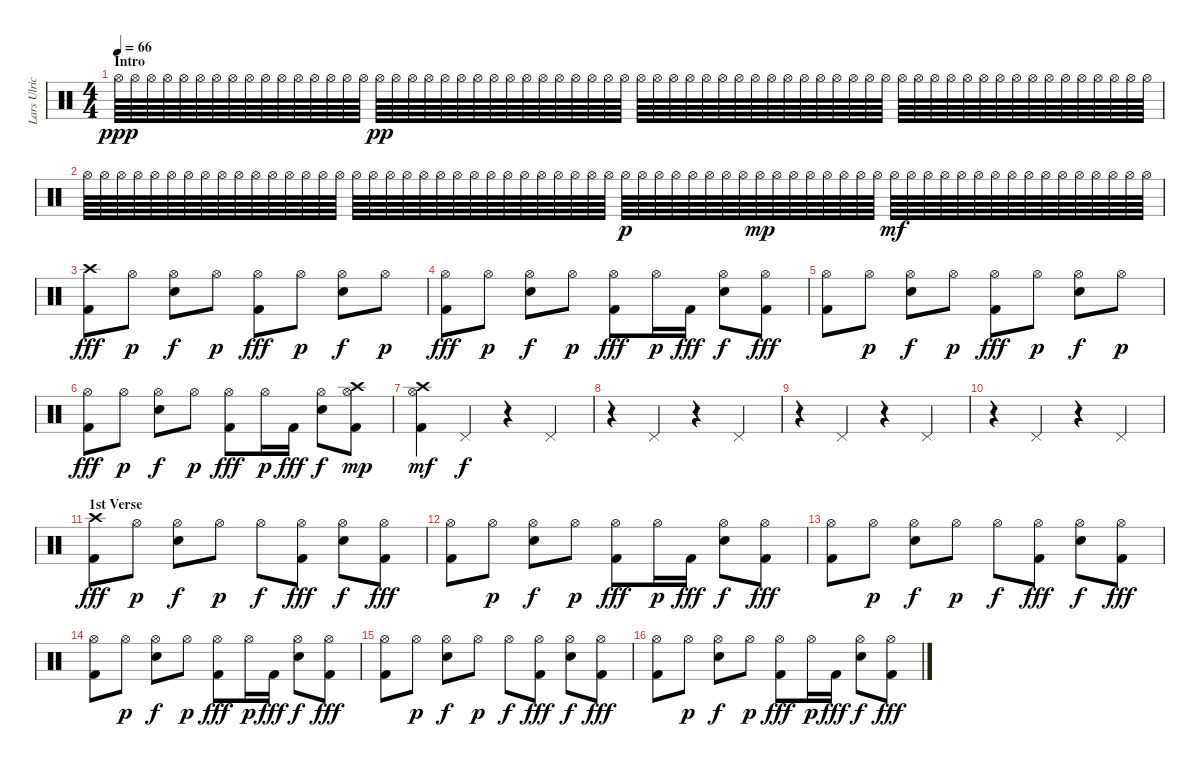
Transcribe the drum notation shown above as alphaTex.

\track ("Lars Ulrich (Drums)" "Lars Ulric") {instrument percussion}
\staff {score}
\articulation defaults
\ts (4 4)
\section ("" "Intro")
\tempo 66
\clef neutral
\ks c "Hi-Hat (open)".64{dy ppp} "Hi-Hat (open)".64 "Hi-Hat (open)".64 "Hi-Hat (open)".64 "Hi-Hat (open)".64 "Hi-Hat (open)".64 "Hi-Hat (open)".64 "Hi-Hat (open)".64 "Hi-Hat (open)".64 "Hi-Hat (open)".64 "Hi-Hat (open)".64 "Hi-Hat (open)".64 "Hi-Hat (open)".64 "Hi-Hat (open)".64 "Hi-Hat (open)".64 "Hi-Hat (open)".64 "Hi-Hat (open)".64{dy pp} "Hi-Hat (open)".64 "Hi-Hat (open)".64 "Hi-Hat (open)".64 "Hi-Hat (open)".64 "Hi-Hat (open)".64 "Hi-Hat (open)".64 "Hi-Hat (open)".64 "Hi-Hat (open)".64 "Hi-Hat (open)".64 "Hi-Hat (open)".64 "Hi-Hat (open)".64 "Hi-Hat (open)".64 "Hi-Hat (open)".64 "Hi-Hat (open)".64 "Hi-Hat (open)".64 "Hi-Hat (open)".64 "Hi-Hat (open)".64 "Hi-Hat (open)".64 "Hi-Hat (open)".64 "Hi-Hat (open)".64 "Hi-Hat (open)".64 "Hi-Hat (open)".64 "Hi-Hat (open)".64 "Hi-Hat (open)".64 "Hi-Hat (open)".64 "Hi-Hat (open)".64 "Hi-Hat (open)".64 "Hi-Hat (open)".64 "Hi-Hat (open)".64 "Hi-Hat (open)".64 "Hi-Hat (open)".64 "Hi-Hat (open)".64 "Hi-Hat (open)".64 "Hi-Hat (open)".64 "Hi-Hat (open)".64 "Hi-Hat (open)".64 "Hi-Hat (open)".64 "Hi-Hat (open)".64 "Hi-Hat (open)".64 "Hi-Hat (open)".64 "Hi-Hat (open)".64 "Hi-Hat (open)".64 "Hi-Hat (open)".64 "Hi-Hat (open)".64 "Hi-Hat (open)".64 "Hi-Hat (open)".64 "Hi-Hat (open)".64
|
"Hi-Hat (open)".64 "Hi-Hat (open)".64 "Hi-Hat (open)".64 "Hi-Hat (open)".64 "Hi-Hat (open)".64 "Hi-Hat (open)".64 "Hi-Hat (open)".64 "Hi-Hat (open)".64 "Hi-Hat (open)".64 "Hi-Hat (open)".64 "Hi-Hat (open)".64 "Hi-Hat (open)".64 "Hi-Hat (open)".64 "Hi-Hat (open)".64 "Hi-Hat (open)".64 "Hi-Hat (open)".64 "Hi-Hat (open)".64 "Hi-Hat (open)".64 "Hi-Hat (open)".64 "Hi-Hat (open)".64 "Hi-Hat (open)".64 "Hi-Hat (open)".64 "Hi-Hat (open)".64 "Hi-Hat (open)".64 "Hi-Hat (open)".64 "Hi-Hat (open)".64 "Hi-Hat (open)".64 "Hi-Hat (open)".64 "Hi-Hat (open)".64 "Hi-Hat (open)".64 "Hi-Hat (open)".64 "Hi-Hat (open)".64 "Hi-Hat (open)".64{dy p} "Hi-Hat (open)".64 "Hi-Hat (open)".64 "Hi-Hat (open)".64 "Hi-Hat (open)".64 "Hi-Hat (open)".64 "Hi-Hat (open)".64 "Hi-Hat (open)".64 "Hi-Hat (open)".64{dy mp} "Hi-Hat (open)".64 "Hi-Hat (open)".64 "Hi-Hat (open)".64 "Hi-Hat (open)".64 "Hi-Hat (open)".64 "Hi-Hat (open)".64 "Hi-Hat (open)".64 "Hi-Hat (open)".64{dy mf} "Hi-Hat (open)".64 "Hi-Hat (open)".64 "Hi-Hat (open)".64 "Hi-Hat (open)".64 "Hi-Hat (open)".64 "Hi-Hat (open)".64 "Hi-Hat (open)".64 "Hi-Hat (open)".64 "Hi-Hat (open)".64 "Hi-Hat (open)".64 "Hi-Hat (open)".64 "Hi-Hat (open)".64 "Hi-Hat (open)".64 "Hi-Hat (open)".64 "Hi-Hat (open)".64 |
("Kick (hit) 2" "Crash high (hit)").8{dy fff} "Hi-Hat (open)".8{dy p} ("Hi-Hat (open)" "Snare (hit) 2").8{dy f} "Hi-Hat (open)".8{dy p} ("Hi-Hat (open)" "Kick (hit) 2").8{dy fff} "Hi-Hat (open)".8{dy p} ("Hi-Hat (open)" "Snare (hit) 2").8{dy f} "Hi-Hat (open)".8{dy p} |
("Hi-Hat (open)" "Kick (hit) 2").8{dy fff} "Hi-Hat (open)".8{dy p} ("Hi-Hat (open)" "Snare (hit) 2").8{dy f} "Hi-Hat (open)".8{dy p} ("Hi-Hat (open)" "Kick (hit) 2").8{dy fff} "Hi-Hat (open)".16{dy p} "Kick (hit) 2".16{dy fff} ("Hi-Hat (open)" "Snare (hit) 2").8{dy f} ("Hi-Hat (open)" "Kick (hit) 2").8{dy fff} |
("Hi-Hat (open)" "Kick (hit) 2").8 "Hi-Hat (open)".8{dy p} ("Hi-Hat (open)" "Snare (hit) 2").8{dy f} "Hi-Hat (open)".8{dy p} ("Hi-Hat (open)" "Kick (hit) 2").8{dy fff} "Hi-Hat (open)".8{dy p} ("Hi-Hat (open)" "Snare (hit) 2").8{dy f} "Hi-Hat (open)".8{dy p} |
("Hi-Hat (open)" "Kick (hit) 2").8{dy fff} "Hi-Hat (open)".8{dy p} ("Hi-Hat (open)" "Snare (hit) 2").8{dy f} "Hi-Hat (open)".8{dy p} ("Hi-Hat (open)" "Kick (hit) 2").8{dy fff} "Hi-Hat (open)".16{dy p} "Kick (hit) 2".16{dy fff} ("Hi-Hat (open)" "Snare (hit) 2").8{dy f} ("Hi-Hat (open)" "Kick (hit) 2" "Crash high (hit)").8{dy mp} |
("Hi-Hat (open)" "Kick (hit) 2" "Crash high (hit)").4{dy mf} "Pedal Hi-Hat (hit)".4{dy f} r.4 "Pedal Hi-Hat (hit)".4 |
r.4 "Pedal Hi-Hat (hit)".4 r.4 "Pedal Hi-Hat (hit)".4 |
r.4 "Pedal Hi-Hat (hit)".4 r.4 "Pedal Hi-Hat (hit)".4 |
r.4 "Pedal Hi-Hat (hit)".4 r.4 "Pedal Hi-Hat (hit)".4 |
\section ("" "1st Verse")
("Kick (hit) 2" "Crash high (hit)").8{dy fff} "Hi-Hat (open)".8{dy p} ("Hi-Hat (open)" "Snare (hit) 2").8{dy f} "Hi-Hat (open)".8{dy p} "Hi-Hat (open)".8{dy f} ("Hi-Hat (open)" "Kick (hit) 2").8{dy fff} ("Hi-Hat (open)" "Snare (hit) 2").8{dy f} ("Hi-Hat (open)" "Kick (hit) 2").8{dy fff} |
("Hi-Hat (open)" "Kick (hit) 2").8 "Hi-Hat (open)".8{dy p} ("Hi-Hat (open)" "Snare (hit) 2").8{dy f} "Hi-Hat (open)".8{dy p} ("Hi-Hat (open)" "Kick (hit) 2").8{dy fff} "Hi-Hat (open)".16{dy p} "Kick (hit) 2".16{dy fff} ("Hi-Hat (open)" "Snare (hit) 2").8{dy f} ("Hi-Hat (open)" "Kick (hit) 2").8{dy fff} |
("Hi-Hat (open)" "Kick (hit) 2").8 "Hi-Hat (open)".8{dy p} ("Hi-Hat (open)" "Snare (hit) 2").8{dy f} "Hi-Hat (open)".8{dy p} "Hi-Hat (open)".8{dy f} ("Hi-Hat (open)" "Kick (hit) 2").8{dy fff} ("Hi-Hat (open)" "Snare (hit) 2").8{dy f} ("Hi-Hat (open)" "Kick (hit) 2").8{dy fff} |
("Hi-Hat (open)" "Kick (hit) 2").8 "Hi-Hat (open)".8{dy p} ("Hi-Hat (open)" "Snare (hit) 2").8{dy f} "Hi-Hat (open)".8{dy p} ("Hi-Hat (open)" "Kick (hit) 2").8{dy fff} "Hi-Hat (open)".16{dy p} "Kick (hit) 2".16{dy fff} ("Hi-Hat (open)" "Snare (hit) 2").8{dy f} ("Hi-Hat (open)" "Kick (hit) 2").8{dy fff} |
("Hi-Hat (open)" "Kick (hit) 2").8 "Hi-Hat (open)".8{dy p} ("Hi-Hat (open)" "Snare (hit) 2").8{dy f} "Hi-Hat (open)".8{dy p} "Hi-Hat (open)".8{dy f} ("Hi-Hat (open)" "Kick (hit) 2").8{dy fff} ("Hi-Hat (open)" "Snare (hit) 2").8{dy f} ("Hi-Hat (open)" "Kick (hit) 2").8{dy fff} |
("Hi-Hat (open)" "Kick (hit) 2").8 "Hi-Hat (open)".8{dy p} ("Hi-Hat (open)" "Snare (hit) 2").8{dy f} "Hi-Hat (open)".8{dy p} ("Hi-Hat (open)" "Kick (hit) 2").8{dy fff} "Hi-Hat (open)".16{dy p} "Kick (hit) 2".16{dy fff} ("Hi-Hat (open)" "Snare (hit) 2").8{dy f} ("Hi-Hat (open)" "Kick (hit) 2").8{dy fff}
